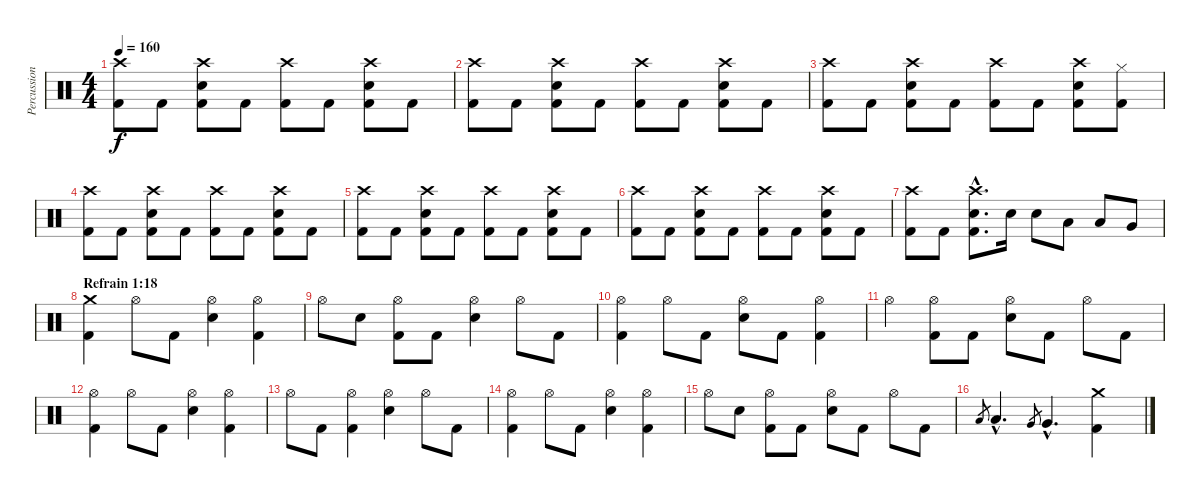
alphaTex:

\track ("Percussion" "Percussion") {instrument percussion}
\staff {score}
\articulation defaults
\ts (4 4)
\tempo 160
\clef neutral
\ks c
("Crash high (hit)" "Kick (hit) 2").8{dy f} "Kick (hit) 2".8 ("Crash high (hit)" "Snare (hit) 2" "Kick (hit) 2").8 "Kick (hit) 2".8 ("Crash high (hit)" "Kick (hit) 2").8 "Kick (hit) 2".8 ("Crash high (hit)" "Snare (hit) 2" "Kick (hit) 2").8 "Kick (hit) 2".8 |
("Crash high (hit)" "Kick (hit) 2").8 "Kick (hit) 2".8 ("Crash high (hit)" "Snare (hit) 2" "Kick (hit) 2").8 "Kick (hit) 2".8 ("Crash high (hit)" "Kick (hit) 2").8 "Kick (hit) 2".8 ("Crash high (hit)" "Snare (hit) 2" "Kick (hit) 2").8 "Kick (hit) 2".8 |
("Crash high (hit)" "Kick (hit) 2").8 "Kick (hit) 2".8 ("Crash high (hit)" "Snare (hit) 2" "Kick (hit) 2").8 "Kick (hit) 2".8 ("Crash high (hit)" "Kick (hit) 2").8 "Kick (hit) 2".8 ("Crash high (hit)" "Snare (hit) 2" "Kick (hit) 2").8 ("Hi-Hat (closed)" "Kick (hit) 2").8 |
("Crash high (hit)" "Kick (hit) 2").8 "Kick (hit) 2".8 ("Crash high (hit)" "Snare (hit) 2" "Kick (hit) 2").8 "Kick (hit) 2".8 ("Crash high (hit)" "Kick (hit) 2").8 "Kick (hit) 2".8 ("Crash high (hit)" "Snare (hit) 2" "Kick (hit) 2").8 "Kick (hit) 2".8 |
("Crash high (hit)" "Kick (hit) 2").8 "Kick (hit) 2".8 ("Crash high (hit)" "Snare (hit) 2" "Kick (hit) 2").8 "Kick (hit) 2".8 ("Crash high (hit)" "Kick (hit) 2").8 "Kick (hit) 2".8 ("Crash high (hit)" "Snare (hit) 2" "Kick (hit) 2").8 "Kick (hit) 2".8 |
("Crash high (hit)" "Kick (hit) 2").8 "Kick (hit) 2".8 ("Crash high (hit)" "Snare (hit) 2" "Kick (hit) 2").8 "Kick (hit) 2".8 ("Crash high (hit)" "Kick (hit) 2").8 "Kick (hit) 2".8 ("Crash high (hit)" "Snare (hit) 2" "Kick (hit) 2").8 "Kick (hit) 2".8 |
("Crash high (hit)" "Kick (hit) 2").8 "Kick (hit) 2".8 ("Crash high (hit)"{hac} "Snare (hit) 2"{hac} "Kick (hit) 2"{hac}).8{d} "Snare (hit) 2".16 "Snare (hit) 2".8 "Low Tom (hit)".8 "Low Tom (hit)".8 "Very Low Tom (hit)".8 |
\section ("" "Refrain 1:18")
("Crash medium (hit)" "Kick (hit) 2").4 "Hi-Hat (open)".8 "Kick (hit) 2".8 ("Hi-Hat (open)" "Snare (hit) 2").4 ("Hi-Hat (open)" "Kick (hit) 2").4 |
"Hi-Hat (open)".8 "Snare (hit) 2".8 ("Hi-Hat (open)" "Kick (hit) 2").8 "Kick (hit) 2".8 ("Hi-Hat (open)" "Snare (hit) 2").4 "Hi-Hat (open)".8 "Kick (hit) 2".8 |
("Hi-Hat (open)" "Kick (hit) 2").4 "Hi-Hat (open)".8 "Kick (hit) 2".8 ("Hi-Hat (open)" "Snare (hit) 2").8 "Kick (hit) 2".8 ("Hi-Hat (open)" "Kick (hit) 2").4 |
"Hi-Hat (open)".4 ("Hi-Hat (open)" "Kick (hit) 2").8 "Kick (hit) 2".8 ("Hi-Hat (open)" "Snare (hit) 2").8 "Kick (hit) 2".8 "Hi-Hat (open)".8 "Kick (hit) 2".8 |
("Hi-Hat (open)" "Kick (hit) 2").4 "Hi-Hat (open)".8 "Kick (hit) 2".8 ("Hi-Hat (open)" "Snare (hit) 2").4 ("Hi-Hat (open)" "Kick (hit) 2").4 |
"Hi-Hat (open)".8 "Kick (hit) 2".8 ("Hi-Hat (open)" "Kick (hit) 2").4 ("Hi-Hat (open)" "Snare (hit) 2").4 "Hi-Hat (open)".8 "Kick (hit) 2".8 |
("Hi-Hat (open)" "Kick (hit) 2").4 "Hi-Hat (open)".8 "Kick (hit) 2".8 ("Hi-Hat (open)" "Snare (hit) 2").4 ("Hi-Hat (open)" "Kick (hit) 2").4 |
"Hi-Hat (open)".8 "Snare (hit) 2".8 ("Hi-Hat (open)" "Kick (hit) 2").8 "Kick (hit) 2".8 ("Hi-Hat (open)" "Snare (hit) 2").8 "Kick (hit) 2".8 "Hi-Hat (open)".8 "Kick (hit) 2".8 |
"Low Tom (hit)".8{gr} "Low Tom (hit)"{hac}.4{d} "Very Low Tom (hit)".8{gr} "Very Low Tom (hit)"{hac}.4{d} ("Crash medium (hit)" "Kick (hit) 2").4
